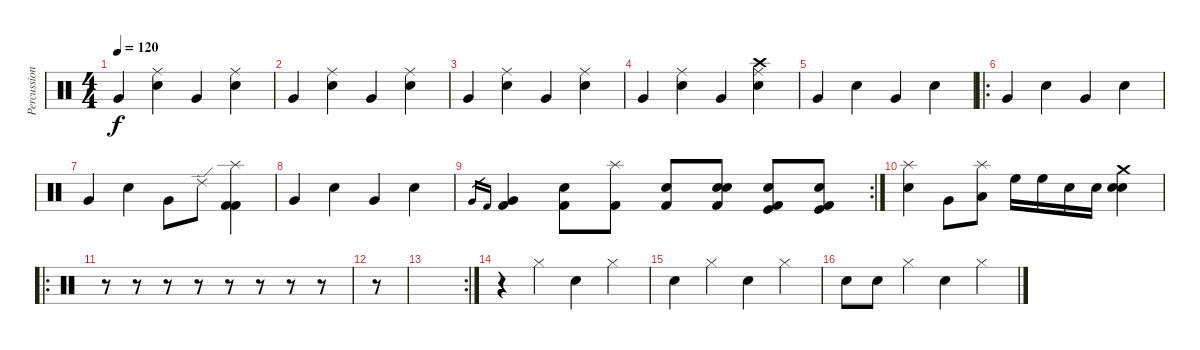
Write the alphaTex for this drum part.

\track ("Percussion" "Percussion") {instrument percussion}
\staff {score}
\articulation defaults
\ts (4 4)
\tempo 120
\clef neutral
\ks c "Very Low Tom (hit)".4{dy f}
("Ride (middle)" "Snare (hit) 2").4 "Very Low Tom (hit)".4 ("Ride (middle)" "Snare (hit) 2").4 |
"Very Low Tom (hit)".4 ("Ride (middle)" "Snare (hit) 2").4 "Very Low Tom (hit)".4 ("Ride (middle)" "Snare (hit) 2").4 |
"Very Low Tom (hit)".4 ("Ride (middle)" "Snare (hit) 2").4 "Very Low Tom (hit)".4 ("Ride (middle)" "Snare (hit) 2").4 |
"Very Low Tom (hit)".4 ("Ride (middle)" "Snare (hit) 2").4 "Very Low Tom (hit)".4 ("Crash high (hit)" "Ride (middle)" "Snare (hit) 2").4 |
"Very Low Tom (hit)".4 "Snare (hit) 2".4 "Very Low Tom (hit)".4 "Snare (hit) 2".4 |
\ro "Very Low Tom (hit)".4 "Snare (hit) 2".4 "Very Low Tom (hit)".4 "Snare (hit) 2".4
|
"Very Low Tom (hit)".4 "Snare (hit) 2".4 "Very Low Tom (hit)".8 "Ride (edge) 2".8 ("Splash (hit)" "Kick (hit) 2" "Kick (hit) 2").4 |
"Very Low Tom (hit)".4 "Snare (hit) 2".4 "Very Low Tom (hit)".4 "Snare (hit) 2".4 |
\rc 2 "Very Low Tom (hit)".16{gr} "Kick (hit) 2".16{gr}
("Very Low Tom (hit)" "Kick (hit) 2").4 ("Snare (hit) 2" "Kick (hit) 2").8 ("Splash (hit)" "Kick (hit) 2").8 ("Snare (hit) 2" "Kick (hit) 2").8 ("Electric Snare (hit)" "Snare (hit) 2" "Kick (hit) 2").8 ("Electric Snare (hit)" "Kick (hit)" "Kick (hit) 2").8 ("Electric Snare (hit)" "Kick (hit)" "Kick (hit) 2").8 |
("Splash (hit)" "Snare (hit) 2").4 "Very Low Tom (hit)".8 ("Splash (hit)" "Low Floor Tom (hit)").8 "High Floor Tom (hit)".16 "High Floor Tom (hit)".16 "Electric Snare (hit)".16 "Electric Snare (hit)".16 ("Crash medium (hit)" "Electric Snare (hit)" "Snare (hit) 2").4 |
\ro
r.8 r.8 r.8 r.8 r.8 r.8 r.8 r.8 |
r.8 |
\rc 2
|
r.4 "Hi-Hat (closed)".4 "Electric Snare (hit)".4 "Hi-Hat (closed)".4 |
"Snare (hit) 2".4 "Hi-Hat (closed)".4 "Electric Snare (hit)".4 "Hi-Hat (closed)".4 |
"Snare (hit) 2".8 "Snare (hit) 2".8 "Hi-Hat (closed)".4 "Electric Snare (hit)".4 "Hi-Hat (closed)".4
